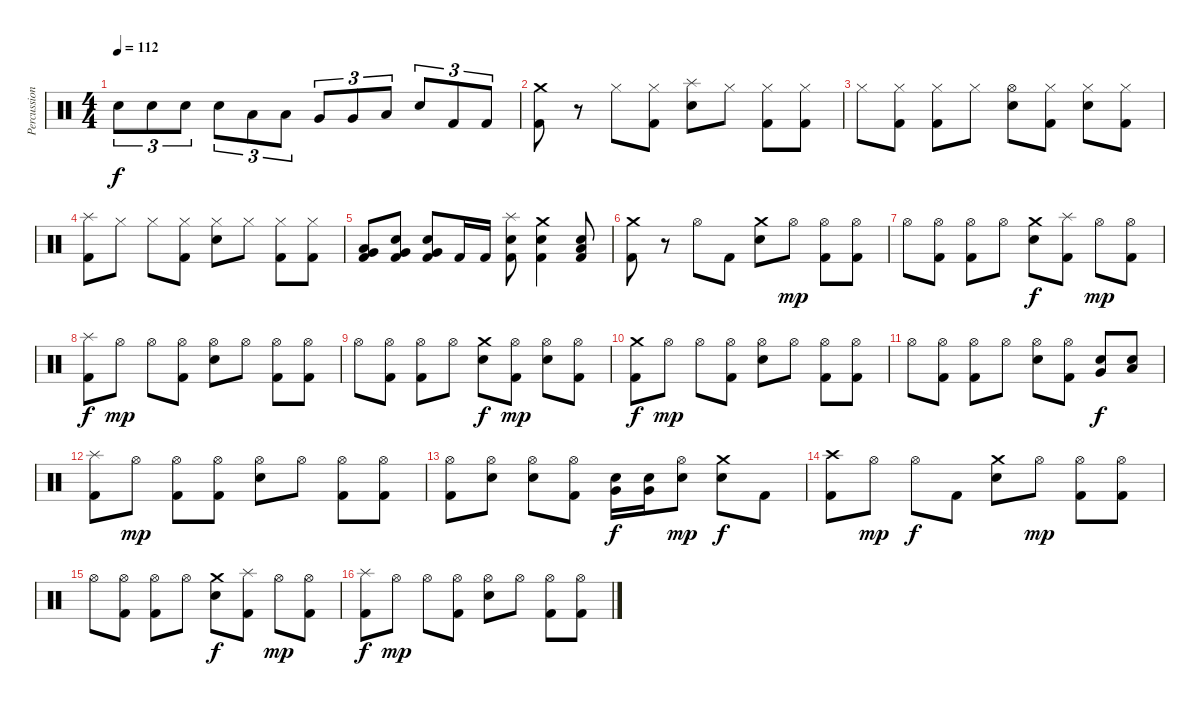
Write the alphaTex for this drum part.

\track ("Percussion" "Percussion") {instrument percussion}
\staff {score}
\articulation defaults
\ts (4 4)
\tempo 112
\clef neutral
\ks c "Snare (hit) 2".8{tu (3 2) dy f} "Snare (hit) 2".8{tu (3 2)} "Snare (hit) 2".8{tu (3 2)} "Snare (hit) 2".8{tu (3 2)} "Low Tom (hit)".8{tu (3 2)} "Low Tom (hit)".8{tu (3 2)} "Very Low Tom (hit)".8{tu (3 2)} "Very Low Tom (hit)".8{tu (3 2)} "Low Floor Tom (hit)".8{tu (3 2)} "Snare (hit) 2".8{tu (3 2)} "Kick (hit) 2".8{tu (3 2)} "Kick (hit) 2".8{tu (3 2)}
|
("Crash medium (hit)" "Kick (hit) 2").8 r.8 "Hi-Hat (closed)".8 ("Hi-Hat (closed)" "Kick (hit) 2").8 ("Splash (hit)" "Snare (hit) 2").8 "Hi-Hat (closed)".8 ("Hi-Hat (closed)" "Kick (hit) 2").8 ("Hi-Hat (closed)" "Kick (hit) 2").8 |
"Hi-Hat (closed)".8 ("Hi-Hat (closed)" "Kick (hit) 2").8 ("Hi-Hat (closed)" "Kick (hit) 2").8 "Hi-Hat (closed)".8 ("Hi-Hat (open)" "Snare (hit) 2").8 ("Hi-Hat (closed)" "Kick (hit) 2").8 ("Hi-Hat (closed)" "Snare (hit) 2").8 ("Hi-Hat (closed)" "Kick (hit) 2").8 |
("Splash (hit)" "Kick (hit) 2").8 "Hi-Hat (closed)".8 "Hi-Hat (closed)".8 ("Hi-Hat (closed)" "Kick (hit) 2").8 ("Hi-Hat (closed)" "Snare (hit) 2").8 "Hi-Hat (closed)".8 ("Hi-Hat (closed)" "Kick (hit) 2").8 ("Hi-Hat (closed)" "Kick (hit) 2").8 |
("Low Floor Tom (hit)" "Very Low Tom (hit)" "Kick (hit) 2").8 ("Snare (hit) 2" "Very Low Tom (hit)" "Kick (hit) 2").8 ("Snare (hit) 2" "Very Low Tom (hit)" "Kick (hit) 2").8 "Kick (hit) 2".16 "Kick (hit) 2".16 ("Splash (hit)" "Snare (hit) 2" "Kick (hit) 2").8 ("Crash medium (hit)" "Snare (hit) 2" "Kick (hit) 2").4 ("Low Floor Tom (hit)" "Snare (hit) 2" "Kick (hit) 2").8 |
("Crash medium (hit)" "Kick (hit) 2").8 r.8 "Hi-Hat (open)".8 "Kick (hit) 2".8 ("Crash medium (hit)" "Snare (hit) 2").8 "Hi-Hat (open)".8{dy mp} ("Hi-Hat (open)" "Kick (hit) 2").8 ("Hi-Hat (open)" "Kick (hit) 2").8 |
"Hi-Hat (open)".8 ("Hi-Hat (open)" "Kick (hit) 2").8 ("Hi-Hat (open)" "Kick (hit) 2").8 "Hi-Hat (open)".8 ("Crash medium (hit)" "Snare (hit) 2").8{dy f} ("Splash (hit)" "Kick (hit) 2").8 "Hi-Hat (open)".8{dy mp} ("Hi-Hat (open)" "Kick (hit) 2").8 |
("Splash (hit)" "Kick (hit) 2").8{dy f} "Hi-Hat (open)".8{dy mp} "Hi-Hat (open)".8 ("Hi-Hat (open)" "Kick (hit) 2").8 ("Hi-Hat (open)" "Snare (hit) 2").8 "Hi-Hat (open)".8 ("Hi-Hat (open)" "Kick (hit) 2").8 ("Hi-Hat (open)" "Kick (hit) 2").8 |
"Hi-Hat (open)".8 ("Hi-Hat (open)" "Kick (hit) 2").8 ("Hi-Hat (open)" "Kick (hit) 2").8 "Hi-Hat (open)".8 ("Crash medium (hit)" "Snare (hit) 2").8{dy f} ("Hi-Hat (open)" "Kick (hit) 2").8{dy mp} ("Hi-Hat (open)" "Snare (hit) 2").8 ("Hi-Hat (open)" "Kick (hit) 2").8 |
("Crash medium (hit)" "Kick (hit) 2").8{dy f} "Hi-Hat (open)".8{dy mp} "Hi-Hat (open)".8 ("Hi-Hat (open)" "Kick (hit) 2").8 ("Hi-Hat (open)" "Snare (hit) 2").8 "Hi-Hat (open)".8 ("Hi-Hat (open)" "Kick (hit) 2").8 ("Hi-Hat (open)" "Kick (hit) 2").8 |
"Hi-Hat (open)".8 ("Hi-Hat (open)" "Kick (hit) 2").8 ("Hi-Hat (open)" "Kick (hit) 2").8 "Hi-Hat (open)".8 ("Hi-Hat (open)" "Snare (hit) 2").8 ("Hi-Hat (open)" "Kick (hit) 2").8 ("Very Low Tom (hit)" "Snare (hit) 2").8{dy f} ("Low Floor Tom (hit)" "Snare (hit) 2").8 |
("Splash (hit)" "Kick (hit) 2").8 "Hi-Hat (open)".8{dy mp} ("Hi-Hat (open)" "Kick (hit) 2").8 ("Hi-Hat (open)" "Kick (hit) 2").8 ("Hi-Hat (open)" "Snare (hit) 2").8 "Hi-Hat (open)".8 ("Hi-Hat (open)" "Kick (hit) 2").8 ("Hi-Hat (open)" "Kick (hit) 2").8 |
("Hi-Hat (open)" "Kick (hit) 2").8 ("Hi-Hat (open)" "Snare (hit) 2").8 ("Hi-Hat (open)" "Snare (hit) 2").8 ("Hi-Hat (open)" "Kick (hit) 2").8 ("Very Low Tom (hit)" "Snare (hit) 2").16{dy f} ("Very Low Tom (hit)" "Snare (hit) 2").16 ("Hi-Hat (open)" "Snare (hit) 2").8{dy mp} ("Crash medium (hit)" "Snare (hit) 2").8{dy f} "Kick (hit) 2".8 |
("Crash high (hit)" "Kick (hit) 2").8 "Hi-Hat (open)".8{dy mp} "Hi-Hat (open)".8{dy f} "Kick (hit) 2".8 ("Crash medium (hit)" "Snare (hit) 2").8 "Hi-Hat (open)".8{dy mp} ("Hi-Hat (open)" "Kick (hit) 2").8 ("Hi-Hat (open)" "Kick (hit) 2").8 |
"Hi-Hat (open)".8 ("Hi-Hat (open)" "Kick (hit) 2").8 ("Hi-Hat (open)" "Kick (hit) 2").8 "Hi-Hat (open)".8 ("Crash medium (hit)" "Snare (hit) 2").8{dy f} ("Splash (hit)" "Kick (hit) 2").8 "Hi-Hat (open)".8{dy mp} ("Hi-Hat (open)" "Kick (hit) 2").8 |
("Splash (hit)" "Kick (hit) 2").8{dy f} "Hi-Hat (open)".8{dy mp} "Hi-Hat (open)".8 ("Hi-Hat (open)" "Kick (hit) 2").8 ("Hi-Hat (open)" "Snare (hit) 2").8 "Hi-Hat (open)".8 ("Hi-Hat (open)" "Kick (hit) 2").8 ("Hi-Hat (open)" "Kick (hit) 2").8
